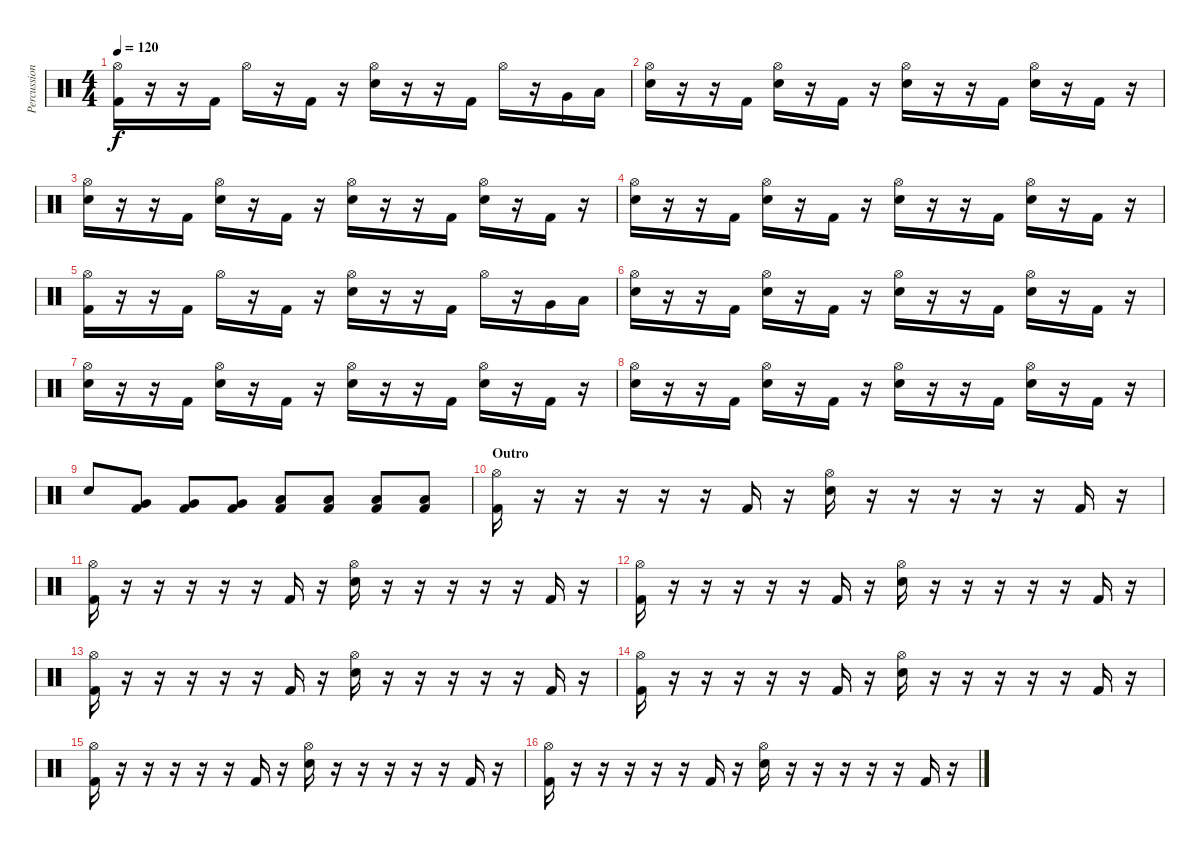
\track ("Percussion" "Percussion") {instrument percussion}
\staff {score}
\articulation defaults
\ts (4 4)
\tempo 120
\clef neutral
\ks c
("Hi-Hat (open)" "Kick (hit) 2").16{dy f} r.16 r.16 "Kick (hit) 2".16 "Hi-Hat (open)".16 r.16 "Kick (hit) 2".16 r.16 ("Hi-Hat (open)" "Electric Snare (hit)").16 r.16 r.16 "Kick (hit) 2".16 "Hi-Hat (open)".16 r.16 "Very Low Tom (hit)".16 "Low Floor Tom (hit)".16 |
("Hi-Hat (open)" "Electric Snare (hit)").16 r.16 r.16 "Kick (hit) 2".16 ("Hi-Hat (open)" "Electric Snare (hit)").16 r.16 "Kick (hit) 2".16 r.16 ("Hi-Hat (open)" "Electric Snare (hit)").16 r.16 r.16 "Kick (hit) 2".16 ("Hi-Hat (open)" "Electric Snare (hit)").16 r.16 "Kick (hit) 2".16 r.16 |
("Hi-Hat (open)" "Electric Snare (hit)").16 r.16 r.16 "Kick (hit) 2".16 ("Hi-Hat (open)" "Electric Snare (hit)").16 r.16 "Kick (hit) 2".16 r.16 ("Hi-Hat (open)" "Electric Snare (hit)").16 r.16 r.16 "Kick (hit) 2".16 ("Hi-Hat (open)" "Electric Snare (hit)").16 r.16 "Kick (hit) 2".16 r.16 |
("Hi-Hat (open)" "Electric Snare (hit)").16 r.16 r.16 "Kick (hit) 2".16 ("Hi-Hat (open)" "Electric Snare (hit)").16 r.16 "Kick (hit) 2".16 r.16 ("Hi-Hat (open)" "Electric Snare (hit)").16 r.16 r.16 "Kick (hit) 2".16 ("Hi-Hat (open)" "Electric Snare (hit)").16 r.16 "Kick (hit) 2".16 r.16 |
("Hi-Hat (open)" "Kick (hit) 2").16 r.16 r.16 "Kick (hit) 2".16 "Hi-Hat (open)".16 r.16 "Kick (hit) 2".16 r.16 ("Hi-Hat (open)" "Electric Snare (hit)").16 r.16 r.16 "Kick (hit) 2".16 "Hi-Hat (open)".16 r.16 "Very Low Tom (hit)".16 "Low Floor Tom (hit)".16 |
("Hi-Hat (open)" "Electric Snare (hit)").16 r.16 r.16 "Kick (hit) 2".16 ("Hi-Hat (open)" "Electric Snare (hit)").16 r.16 "Kick (hit) 2".16 r.16 ("Hi-Hat (open)" "Electric Snare (hit)").16 r.16 r.16 "Kick (hit) 2".16 ("Hi-Hat (open)" "Electric Snare (hit)").16 r.16 "Kick (hit) 2".16 r.16 |
("Hi-Hat (open)" "Electric Snare (hit)").16 r.16 r.16 "Kick (hit) 2".16 ("Hi-Hat (open)" "Electric Snare (hit)").16 r.16 "Kick (hit) 2".16 r.16 ("Hi-Hat (open)" "Electric Snare (hit)").16 r.16 r.16 "Kick (hit) 2".16 ("Hi-Hat (open)" "Electric Snare (hit)").16 r.16 "Kick (hit) 2".16 r.16 |
("Hi-Hat (open)" "Electric Snare (hit)").16 r.16 r.16 "Kick (hit) 2".16 ("Hi-Hat (open)" "Electric Snare (hit)").16 r.16 "Kick (hit) 2".16 r.16 ("Hi-Hat (open)" "Electric Snare (hit)").16 r.16 r.16 "Kick (hit) 2".16 ("Hi-Hat (open)" "Electric Snare (hit)").16 r.16 "Kick (hit) 2".16 r.16 |
"Electric Snare (hit)".8 ("Very Low Tom (hit)" "Kick (hit) 2").8 ("Very Low Tom (hit)" "Kick (hit) 2").8 ("Very Low Tom (hit)" "Kick (hit) 2").8 ("Low Floor Tom (hit)" "Kick (hit) 2").8 ("Low Floor Tom (hit)" "Kick (hit) 2").8 ("Low Floor Tom (hit)" "Kick (hit) 2").8 ("Low Floor Tom (hit)" "Kick (hit) 2").8 |
\section ("" "Outro")
("Hi-Hat (open)" "Kick (hit) 2").16 r.16 r.16 r.16 r.16 r.16 "Kick (hit) 2".16 r.16 ("Hi-Hat (open)" "Electric Snare (hit)").16 r.16 r.16 r.16 r.16 r.16 "Kick (hit) 2".16 r.16 |
("Hi-Hat (open)" "Kick (hit) 2").16 r.16 r.16 r.16 r.16 r.16 "Kick (hit) 2".16 r.16 ("Hi-Hat (open)" "Electric Snare (hit)").16 r.16 r.16 r.16 r.16 r.16 "Kick (hit) 2".16 r.16 |
("Hi-Hat (open)" "Kick (hit) 2").16 r.16 r.16 r.16 r.16 r.16 "Kick (hit) 2".16 r.16 ("Hi-Hat (open)" "Electric Snare (hit)").16 r.16 r.16 r.16 r.16 r.16 "Kick (hit) 2".16 r.16 |
("Hi-Hat (open)" "Kick (hit) 2").16 r.16 r.16 r.16 r.16 r.16 "Kick (hit) 2".16 r.16 ("Hi-Hat (open)" "Electric Snare (hit)").16 r.16 r.16 r.16 r.16 r.16 "Kick (hit) 2".16 r.16 |
("Hi-Hat (open)" "Kick (hit) 2").16 r.16 r.16 r.16 r.16 r.16 "Kick (hit) 2".16 r.16 ("Hi-Hat (open)" "Electric Snare (hit)").16 r.16 r.16 r.16 r.16 r.16 "Kick (hit) 2".16 r.16 |
("Hi-Hat (open)" "Kick (hit) 2").16 r.16 r.16 r.16 r.16 r.16 "Kick (hit) 2".16 r.16 ("Hi-Hat (open)" "Electric Snare (hit)").16 r.16 r.16 r.16 r.16 r.16 "Kick (hit) 2".16 r.16 |
("Hi-Hat (open)" "Kick (hit) 2").16 r.16 r.16 r.16 r.16 r.16 "Kick (hit) 2".16 r.16 ("Hi-Hat (open)" "Electric Snare (hit)").16 r.16 r.16 r.16 r.16 r.16 "Kick (hit) 2".16 r.16
